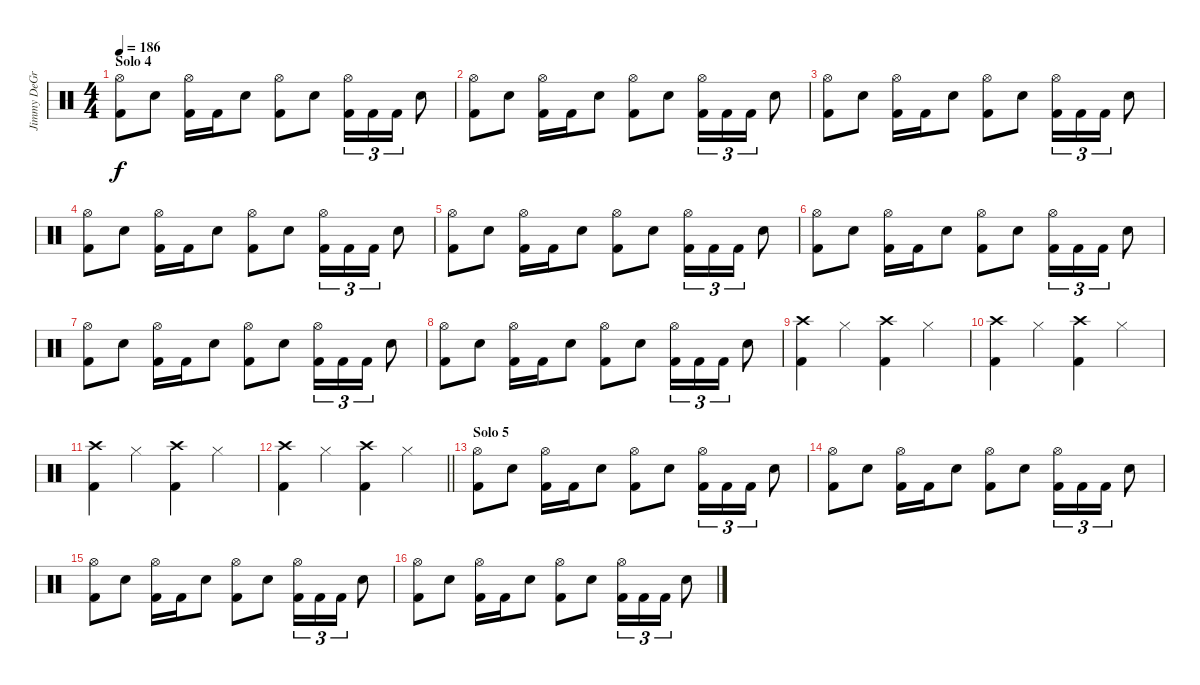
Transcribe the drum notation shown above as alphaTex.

\track ("Jimmy DeGrasso" "Jimmy DeGr") {instrument percussion}
\staff {score}
\articulation defaults
\ts (4 4)
\section ("" "Solo 4")
\tempo 186
\clef neutral
\ks c
("Hi-Hat (open)" "Kick (hit) 2").8{dy f} "Electric Snare (hit)".8 ("Hi-Hat (open)" "Kick (hit) 2").16 "Kick (hit) 2".16 "Electric Snare (hit)".8 ("Hi-Hat (open)" "Kick (hit) 2").8 "Electric Snare (hit)".8 ("Hi-Hat (open)" "Kick (hit) 2").16{tu (3 2)} "Kick (hit) 2".16{tu (3 2)} "Kick (hit) 2".16{tu (3 2)} "Electric Snare (hit)".8 |
("Hi-Hat (open)" "Kick (hit) 2").8 "Electric Snare (hit)".8 ("Hi-Hat (open)" "Kick (hit) 2").16 "Kick (hit) 2".16 "Electric Snare (hit)".8 ("Hi-Hat (open)" "Kick (hit) 2").8 "Electric Snare (hit)".8 ("Hi-Hat (open)" "Kick (hit) 2").16{tu (3 2)} "Kick (hit) 2".16{tu (3 2)} "Kick (hit) 2".16{tu (3 2)} "Electric Snare (hit)".8 |
("Hi-Hat (open)" "Kick (hit) 2").8 "Electric Snare (hit)".8 ("Hi-Hat (open)" "Kick (hit) 2").16 "Kick (hit) 2".16 "Electric Snare (hit)".8 ("Hi-Hat (open)" "Kick (hit) 2").8 "Electric Snare (hit)".8 ("Hi-Hat (open)" "Kick (hit) 2").16{tu (3 2)} "Kick (hit) 2".16{tu (3 2)} "Kick (hit) 2".16{tu (3 2)} "Electric Snare (hit)".8 |
("Hi-Hat (open)" "Kick (hit) 2").8 "Electric Snare (hit)".8 ("Hi-Hat (open)" "Kick (hit) 2").16 "Kick (hit) 2".16 "Electric Snare (hit)".8 ("Hi-Hat (open)" "Kick (hit) 2").8 "Electric Snare (hit)".8 ("Hi-Hat (open)" "Kick (hit) 2").16{tu (3 2)} "Kick (hit) 2".16{tu (3 2)} "Kick (hit) 2".16{tu (3 2)} "Electric Snare (hit)".8 |
("Hi-Hat (open)" "Kick (hit) 2").8 "Electric Snare (hit)".8 ("Hi-Hat (open)" "Kick (hit) 2").16 "Kick (hit) 2".16 "Electric Snare (hit)".8 ("Hi-Hat (open)" "Kick (hit) 2").8 "Electric Snare (hit)".8 ("Hi-Hat (open)" "Kick (hit) 2").16{tu (3 2)} "Kick (hit) 2".16{tu (3 2)} "Kick (hit) 2".16{tu (3 2)} "Electric Snare (hit)".8 |
("Hi-Hat (open)" "Kick (hit) 2").8 "Electric Snare (hit)".8 ("Hi-Hat (open)" "Kick (hit) 2").16 "Kick (hit) 2".16 "Electric Snare (hit)".8 ("Hi-Hat (open)" "Kick (hit) 2").8 "Electric Snare (hit)".8 ("Hi-Hat (open)" "Kick (hit) 2").16{tu (3 2)} "Kick (hit) 2".16{tu (3 2)} "Kick (hit) 2".16{tu (3 2)} "Electric Snare (hit)".8 |
("Hi-Hat (open)" "Kick (hit) 2").8 "Electric Snare (hit)".8 ("Hi-Hat (open)" "Kick (hit) 2").16 "Kick (hit) 2".16 "Electric Snare (hit)".8 ("Hi-Hat (open)" "Kick (hit) 2").8 "Electric Snare (hit)".8 ("Hi-Hat (open)" "Kick (hit) 2").16{tu (3 2)} "Kick (hit) 2".16{tu (3 2)} "Kick (hit) 2".16{tu (3 2)} "Electric Snare (hit)".8 |
("Hi-Hat (open)" "Kick (hit) 2").8 "Electric Snare (hit)".8 ("Hi-Hat (open)" "Kick (hit) 2").16 "Kick (hit) 2".16 "Electric Snare (hit)".8 ("Hi-Hat (open)" "Kick (hit) 2").8 "Electric Snare (hit)".8 ("Hi-Hat (open)" "Kick (hit) 2").16{tu (3 2)} "Kick (hit) 2".16{tu (3 2)} "Kick (hit) 2".16{tu (3 2)} "Electric Snare (hit)".8 |
("Crash high (hit)" "Kick (hit) 2").4 "Hi-Hat (closed)".4 ("Crash high (hit)" "Kick (hit) 2").4 "Hi-Hat (closed)".4 |
("Crash high (hit)" "Kick (hit) 2").4 "Hi-Hat (closed)".4 ("Crash high (hit)" "Kick (hit) 2").4 "Hi-Hat (closed)".4 |
("Crash high (hit)" "Kick (hit) 2").4 "Hi-Hat (closed)".4 ("Crash high (hit)" "Kick (hit) 2").4 "Hi-Hat (closed)".4 |
\barLineRight lightlight
("Crash high (hit)" "Kick (hit) 2").4 "Hi-Hat (closed)".4 ("Crash high (hit)" "Kick (hit) 2").4 "Hi-Hat (closed)".4 |
\section ("" "Solo 5")
("Hi-Hat (open)" "Kick (hit) 2").8 "Electric Snare (hit)".8 ("Hi-Hat (open)" "Kick (hit) 2").16 "Kick (hit) 2".16 "Electric Snare (hit)".8 ("Hi-Hat (open)" "Kick (hit) 2").8 "Electric Snare (hit)".8 ("Hi-Hat (open)" "Kick (hit) 2").16{tu (3 2)} "Kick (hit) 2".16{tu (3 2)} "Kick (hit) 2".16{tu (3 2)} "Electric Snare (hit)".8 |
("Hi-Hat (open)" "Kick (hit) 2").8 "Electric Snare (hit)".8 ("Hi-Hat (open)" "Kick (hit) 2").16 "Kick (hit) 2".16 "Electric Snare (hit)".8 ("Hi-Hat (open)" "Kick (hit) 2").8 "Electric Snare (hit)".8 ("Hi-Hat (open)" "Kick (hit) 2").16{tu (3 2)} "Kick (hit) 2".16{tu (3 2)} "Kick (hit) 2".16{tu (3 2)} "Electric Snare (hit)".8 |
("Hi-Hat (open)" "Kick (hit) 2").8 "Electric Snare (hit)".8 ("Hi-Hat (open)" "Kick (hit) 2").16 "Kick (hit) 2".16 "Electric Snare (hit)".8 ("Hi-Hat (open)" "Kick (hit) 2").8 "Electric Snare (hit)".8 ("Hi-Hat (open)" "Kick (hit) 2").16{tu (3 2)} "Kick (hit) 2".16{tu (3 2)} "Kick (hit) 2".16{tu (3 2)} "Electric Snare (hit)".8 |
("Hi-Hat (open)" "Kick (hit) 2").8 "Electric Snare (hit)".8 ("Hi-Hat (open)" "Kick (hit) 2").16 "Kick (hit) 2".16 "Electric Snare (hit)".8 ("Hi-Hat (open)" "Kick (hit) 2").8 "Electric Snare (hit)".8 ("Hi-Hat (open)" "Kick (hit) 2").16{tu (3 2)} "Kick (hit) 2".16{tu (3 2)} "Kick (hit) 2".16{tu (3 2)} "Electric Snare (hit)".8
